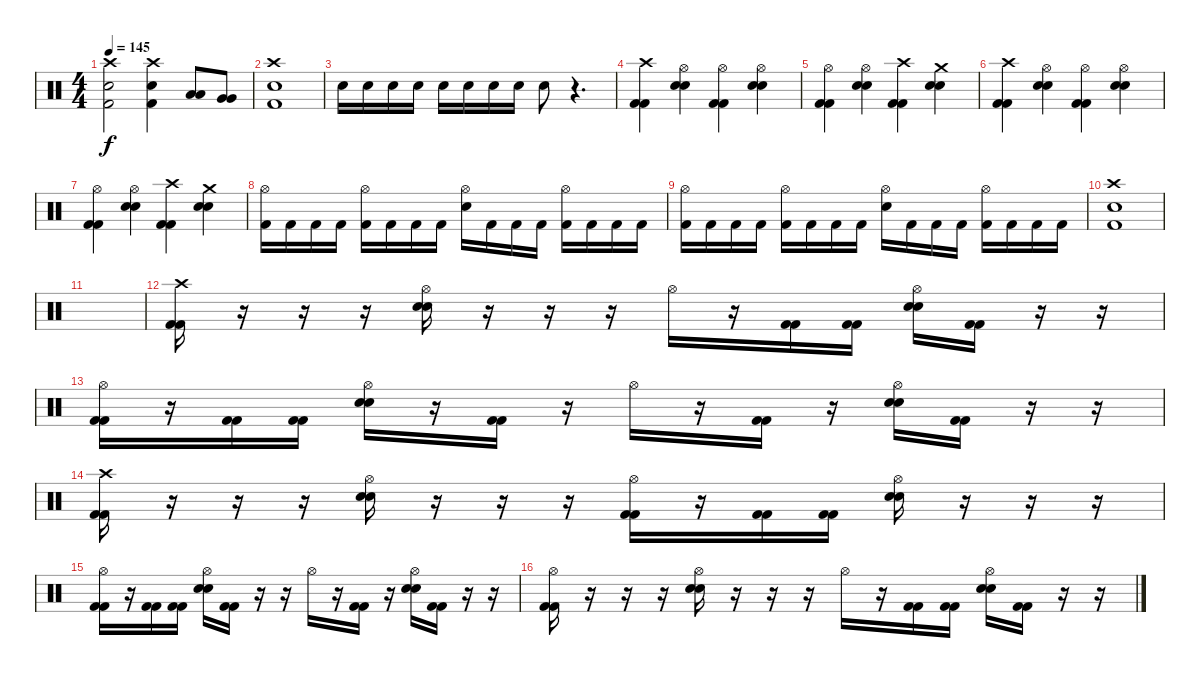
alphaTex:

\track "" {instrument percussion}
\staff {score}
\articulation defaults
\ts (4 4)
\tempo 145
\clef neutral
\ks c
("Crash high (hit)" "Snare (hit) 2" "Kick (hit) 2").2{dy f} ("Crash high (hit)" "Snare (hit) 2" "Kick (hit) 2").4 ("Low Tom (hit)" "Low Tom (hit)").8 ("Very Low Tom (hit)" "Very Low Tom (hit)").8 |
("Crash high (hit)" "Snare (hit) 2" "Kick (hit) 2").1 |
"Snare (hit) 2".16 "Snare (hit) 2".16 "Snare (hit) 2".16 "Snare (hit) 2".16 "Snare (hit) 2".16 "Snare (hit) 2".16 "Snare (hit) 2".16 "Snare (hit) 2".16 "Snare (hit) 2".8 r.4{d} |
("Crash high (hit)" "Kick (hit) 2" "Kick (hit) 2").4 ("Hi-Hat (open)" "Snare (hit) 2" "Snare (hit) 2").4 ("Hi-Hat (open)" "Kick (hit) 2" "Kick (hit) 2").4 ("Hi-Hat (open)" "Snare (hit) 2" "Snare (hit) 2").4 |
("Hi-Hat (open)" "Kick (hit) 2" "Kick (hit) 2").4 ("Hi-Hat (open)" "Snare (hit) 2" "Snare (hit) 2").4 ("Crash high (hit)" "Kick (hit) 2" "Kick (hit) 2").4 ("Crash medium (hit)" "Snare (hit) 2" "Snare (hit) 2").4 |
("Crash high (hit)" "Kick (hit) 2" "Kick (hit) 2").4 ("Hi-Hat (open)" "Snare (hit) 2" "Snare (hit) 2").4 ("Hi-Hat (open)" "Kick (hit) 2" "Kick (hit) 2").4 ("Hi-Hat (open)" "Snare (hit) 2" "Snare (hit) 2").4 |
("Hi-Hat (open)" "Kick (hit) 2" "Kick (hit) 2").4 ("Hi-Hat (open)" "Snare (hit) 2" "Snare (hit) 2").4 ("Crash high (hit)" "Kick (hit) 2" "Kick (hit) 2").4 ("Crash medium (hit)" "Snare (hit) 2" "Snare (hit) 2").4 |
("Hi-Hat (open)" "Kick (hit) 2").16 "Kick (hit) 2".16 "Kick (hit) 2".16 "Kick (hit) 2".16 ("Hi-Hat (open)" "Kick (hit) 2").16 "Kick (hit) 2".16 "Kick (hit) 2".16 "Kick (hit) 2".16 ("Hi-Hat (open)" "Snare (hit) 2").16 "Kick (hit) 2".16 "Kick (hit) 2".16 "Kick (hit) 2".16 ("Hi-Hat (open)" "Kick (hit) 2").16 "Kick (hit) 2".16 "Kick (hit) 2".16 "Kick (hit) 2".16 |
("Hi-Hat (open)" "Kick (hit) 2").16 "Kick (hit) 2".16 "Kick (hit) 2".16 "Kick (hit) 2".16 ("Hi-Hat (open)" "Kick (hit) 2").16 "Kick (hit) 2".16 "Kick (hit) 2".16 "Kick (hit) 2".16 ("Hi-Hat (open)" "Snare (hit) 2").16 "Kick (hit) 2".16 "Kick (hit) 2".16 "Kick (hit) 2".16 ("Hi-Hat (open)" "Kick (hit) 2").16 "Kick (hit) 2".16 "Kick (hit) 2".16 "Kick (hit) 2".16 |
("Crash high (hit)" "Snare (hit) 2" "Kick (hit) 2").1 |
|
("Crash high (hit)" "Kick (hit) 2" "Kick (hit) 2").16 r.16 r.16 r.16 ("Hi-Hat (open)" "Snare (hit) 2" "Snare (hit) 2").16 r.16 r.16 r.16 "Hi-Hat (open)".16 r.16 ("Kick (hit) 2" "Kick (hit) 2").16 ("Kick (hit) 2" "Kick (hit) 2").16 ("Hi-Hat (open)" "Snare (hit) 2" "Snare (hit) 2").16 ("Kick (hit) 2" "Kick (hit) 2").16 r.16 r.16 |
("Hi-Hat (open)" "Kick (hit) 2" "Kick (hit) 2").16 r.16 ("Kick (hit) 2" "Kick (hit) 2").16 ("Kick (hit) 2" "Kick (hit) 2").16 ("Hi-Hat (open)" "Snare (hit) 2" "Snare (hit) 2").16 r.16 ("Kick (hit) 2" "Kick (hit) 2").16 r.16 "Hi-Hat (open)".16 r.16 ("Kick (hit) 2" "Kick (hit) 2").16 r.16 ("Hi-Hat (open)" "Snare (hit) 2" "Snare (hit) 2").16 ("Kick (hit) 2" "Kick (hit) 2").16 r.16 r.16 |
("Crash high (hit)" "Kick (hit) 2" "Kick (hit) 2").16 r.16 r.16 r.16 ("Hi-Hat (open)" "Snare (hit) 2" "Snare (hit) 2").16 r.16 r.16 r.16 ("Hi-Hat (open)" "Kick (hit) 2" "Kick (hit) 2").16 r.16 ("Kick (hit) 2" "Kick (hit) 2").16 ("Kick (hit) 2" "Kick (hit) 2").16 ("Hi-Hat (open)" "Snare (hit) 2" "Snare (hit) 2").16 r.16 r.16 r.16 |
("Hi-Hat (open)" "Kick (hit) 2" "Kick (hit) 2").16 r.16 ("Kick (hit) 2" "Kick (hit) 2").16 ("Kick (hit) 2" "Kick (hit) 2").16 ("Hi-Hat (open)" "Snare (hit) 2" "Snare (hit) 2").16 ("Kick (hit) 2" "Kick (hit) 2").16 r.16 r.16 "Hi-Hat (open)".16 r.16 ("Kick (hit) 2" "Kick (hit) 2").16 r.16 ("Hi-Hat (open)" "Snare (hit) 2" "Snare (hit) 2").16 ("Kick (hit) 2" "Kick (hit) 2").16 r.16 r.16 |
("Hi-Hat (open)" "Kick (hit) 2" "Kick (hit) 2").16 r.16 r.16 r.16 ("Hi-Hat (open)" "Snare (hit) 2" "Snare (hit) 2").16 r.16 r.16 r.16 "Hi-Hat (open)".16 r.16 ("Kick (hit) 2" "Kick (hit) 2").16 ("Kick (hit) 2" "Kick (hit) 2").16 ("Hi-Hat (open)" "Snare (hit) 2" "Snare (hit) 2").16 ("Kick (hit) 2" "Kick (hit) 2").16 r.16 r.16
